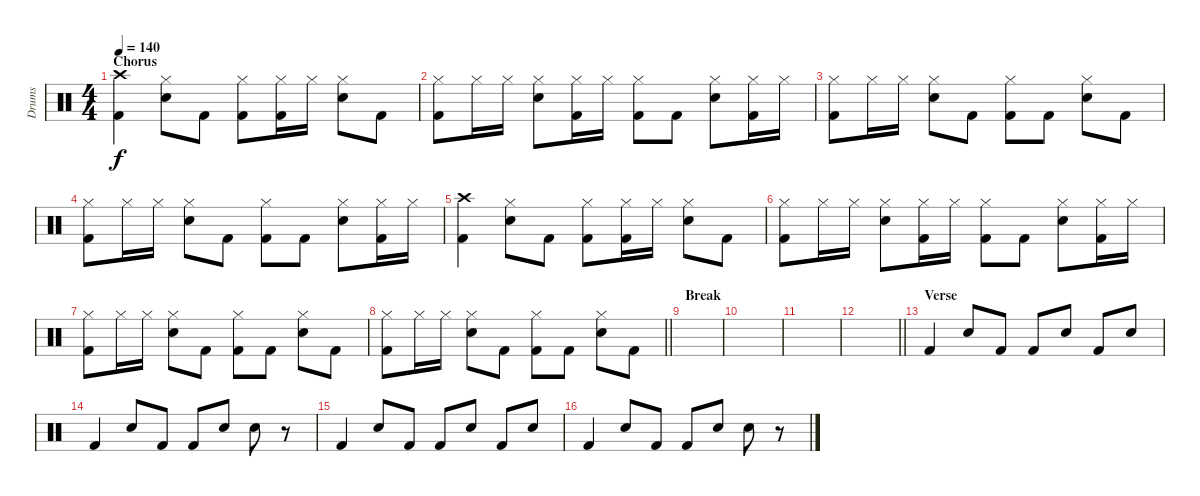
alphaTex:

\track ("Drums" "Drums") {instrument percussion}
\staff {score}
\articulation defaults
\ts (4 4)
\section ("" "Chorus")
\tempo 140
\clef neutral
\ks c
("Crash high (hit)" "Kick (hit) 2").4{dy f} ("Hi-Hat (closed)" "Electric Snare (hit)").8 "Kick (hit) 2".8 ("Hi-Hat (closed)" "Kick (hit) 2").8 ("Hi-Hat (closed)" "Kick (hit) 2").16 "Hi-Hat (closed)".16 ("Hi-Hat (closed)" "Electric Snare (hit)").8 "Kick (hit) 2".8 |
("Hi-Hat (closed)" "Kick (hit) 2").8 "Hi-Hat (closed)".16 "Hi-Hat (closed)".16 ("Hi-Hat (closed)" "Electric Snare (hit)").8 ("Hi-Hat (closed)" "Kick (hit) 2").16 "Hi-Hat (closed)".16 ("Hi-Hat (closed)" "Kick (hit) 2").8 "Kick (hit) 2".8 ("Hi-Hat (closed)" "Electric Snare (hit)").8 ("Hi-Hat (closed)" "Kick (hit) 2").16 "Hi-Hat (closed)".16 |
("Hi-Hat (closed)" "Kick (hit) 2").8 "Hi-Hat (closed)".16 "Hi-Hat (closed)".16 ("Hi-Hat (closed)" "Electric Snare (hit)").8 "Kick (hit) 2".8 ("Hi-Hat (closed)" "Kick (hit) 2").8 "Kick (hit) 2".8 ("Hi-Hat (closed)" "Electric Snare (hit)").8 "Kick (hit) 2".8 |
("Hi-Hat (closed)" "Kick (hit) 2").8 "Hi-Hat (closed)".16 "Hi-Hat (closed)".16 ("Hi-Hat (closed)" "Electric Snare (hit)").8 "Kick (hit) 2".8 ("Hi-Hat (closed)" "Kick (hit) 2").8 "Kick (hit) 2".8 ("Hi-Hat (closed)" "Electric Snare (hit)").8 ("Hi-Hat (closed)" "Kick (hit) 2").16 "Hi-Hat (closed)".16 |
("Crash high (hit)" "Kick (hit) 2").4 ("Hi-Hat (closed)" "Electric Snare (hit)").8 "Kick (hit) 2".8 ("Hi-Hat (closed)" "Kick (hit) 2").8 ("Hi-Hat (closed)" "Kick (hit) 2").16 "Hi-Hat (closed)".16 ("Hi-Hat (closed)" "Electric Snare (hit)").8 "Kick (hit) 2".8 |
("Hi-Hat (closed)" "Kick (hit) 2").8 "Hi-Hat (closed)".16 "Hi-Hat (closed)".16 ("Hi-Hat (closed)" "Electric Snare (hit)").8 ("Hi-Hat (closed)" "Kick (hit) 2").16 "Hi-Hat (closed)".16 ("Hi-Hat (closed)" "Kick (hit) 2").8 "Kick (hit) 2".8 ("Hi-Hat (closed)" "Electric Snare (hit)").8 ("Hi-Hat (closed)" "Kick (hit) 2").16 "Hi-Hat (closed)".16 |
("Hi-Hat (closed)" "Kick (hit) 2").8 "Hi-Hat (closed)".16 "Hi-Hat (closed)".16 ("Hi-Hat (closed)" "Electric Snare (hit)").8 "Kick (hit) 2".8 ("Hi-Hat (closed)" "Kick (hit) 2").8 "Kick (hit) 2".8 ("Hi-Hat (closed)" "Electric Snare (hit)").8 "Kick (hit) 2".8 |
\barLineRight lightlight
("Hi-Hat (closed)" "Kick (hit) 2").8 "Hi-Hat (closed)".16 "Hi-Hat (closed)".16 ("Hi-Hat (closed)" "Electric Snare (hit)").8 "Kick (hit) 2".8 ("Hi-Hat (closed)" "Kick (hit) 2").8 "Kick (hit) 2".8 ("Hi-Hat (closed)" "Electric Snare (hit)").8 "Kick (hit) 2".8 |
\section ("" "Break")
|
|
|
\barLineRight lightlight
|
\section ("" "Verse")
"Kick (hit) 2".4 "Electric Snare (hit)".8 "Kick (hit) 2".8 "Kick (hit) 2".8 "Electric Snare (hit)".8 "Kick (hit) 2".8 "Electric Snare (hit)".8 |
"Kick (hit) 2".4 "Electric Snare (hit)".8 "Kick (hit) 2".8 "Kick (hit) 2".8 "Electric Snare (hit)".8 "Electric Snare (hit)".8 r.8 |
"Kick (hit) 2".4 "Electric Snare (hit)".8 "Kick (hit) 2".8 "Kick (hit) 2".8 "Electric Snare (hit)".8 "Kick (hit) 2".8 "Electric Snare (hit)".8 |
"Kick (hit) 2".4 "Electric Snare (hit)".8 "Kick (hit) 2".8 "Kick (hit) 2".8 "Electric Snare (hit)".8 "Electric Snare (hit)".8 r.8
